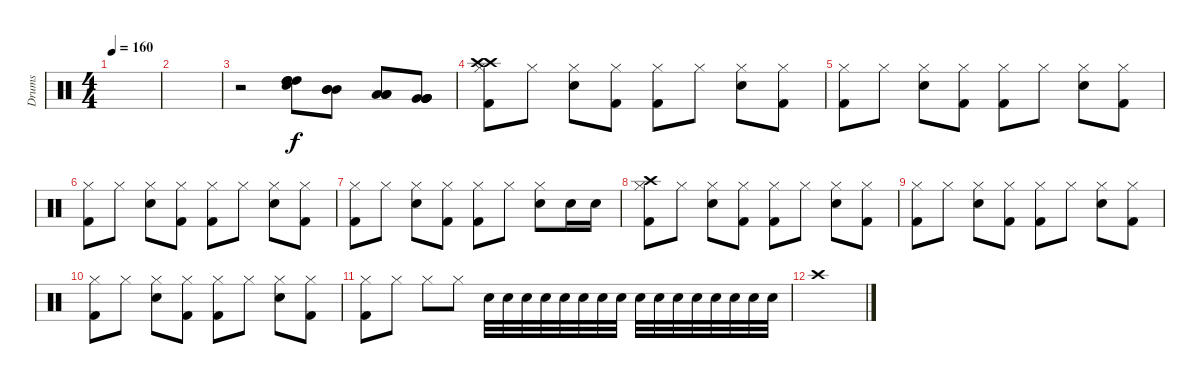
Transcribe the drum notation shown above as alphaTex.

\track ("Drums" "Drums") {instrument percussion}
\staff {score}
\articulation defaults
\ts (4 4)
\tempo 160
\clef neutral
\ks c
|
|
r.2 ("High Tom (hit)" "High Tom (hit)" "High Tom (hit)" "Electric Snare (hit)").8 ("Mid Tom (hit)" "Mid Tom (hit)" "Mid Tom (hit)").8 ("Low Tom (hit)" "Low Tom (hit)" "Low Tom (hit)").8 ("Very Low Tom (hit)" "Very Low Tom (hit)" "Very Low Tom (hit)" "Very Low Tom (hit)").8 |
("Hi-Hat (closed)" "Kick (hit) 2" "Crash high (hit)" "Crash high (hit)").8 "Hi-Hat (closed)".8 ("Hi-Hat (closed)" "Electric Snare (hit)").8 ("Hi-Hat (closed)" "Kick (hit) 2").8 ("Hi-Hat (closed)" "Kick (hit) 2").8 "Hi-Hat (closed)".8 ("Hi-Hat (closed)" "Electric Snare (hit)").8 ("Hi-Hat (closed)" "Kick (hit) 2").8 |
("Hi-Hat (closed)" "Kick (hit) 2").8 "Hi-Hat (closed)".8 ("Hi-Hat (closed)" "Electric Snare (hit)").8 ("Hi-Hat (closed)" "Kick (hit) 2").8 ("Hi-Hat (closed)" "Kick (hit) 2").8 "Hi-Hat (closed)".8 ("Hi-Hat (closed)" "Electric Snare (hit)").8 ("Hi-Hat (closed)" "Kick (hit) 2").8 |
("Hi-Hat (closed)" "Kick (hit) 2").8 "Hi-Hat (closed)".8 ("Hi-Hat (closed)" "Electric Snare (hit)").8 ("Hi-Hat (closed)" "Kick (hit) 2").8 ("Hi-Hat (closed)" "Kick (hit) 2").8 "Hi-Hat (closed)".8 ("Hi-Hat (closed)" "Electric Snare (hit)").8 ("Hi-Hat (closed)" "Kick (hit) 2").8 |
("Hi-Hat (closed)" "Kick (hit) 2").8 "Hi-Hat (closed)".8 ("Hi-Hat (closed)" "Electric Snare (hit)").8 ("Hi-Hat (closed)" "Kick (hit) 2").8 ("Hi-Hat (closed)" "Kick (hit) 2").8 "Hi-Hat (closed)".8 ("Hi-Hat (closed)" "Electric Snare (hit)").8 "Electric Snare (hit)".16 "Electric Snare (hit)".16 |
("Hi-Hat (closed)" "Kick (hit) 2" "Crash high (hit)").8 "Hi-Hat (closed)".8 ("Hi-Hat (closed)" "Electric Snare (hit)").8 ("Hi-Hat (closed)" "Kick (hit) 2").8 ("Hi-Hat (closed)" "Kick (hit) 2").8 "Hi-Hat (closed)".8 ("Hi-Hat (closed)" "Electric Snare (hit)").8 ("Hi-Hat (closed)" "Kick (hit) 2").8 |
("Hi-Hat (closed)" "Kick (hit) 2").8 "Hi-Hat (closed)".8 ("Hi-Hat (closed)" "Electric Snare (hit)").8 ("Hi-Hat (closed)" "Kick (hit) 2").8 ("Hi-Hat (closed)" "Kick (hit) 2").8 "Hi-Hat (closed)".8 ("Hi-Hat (closed)" "Electric Snare (hit)").8 ("Hi-Hat (closed)" "Kick (hit) 2").8 |
("Hi-Hat (closed)" "Kick (hit) 2").8 "Hi-Hat (closed)".8 ("Hi-Hat (closed)" "Electric Snare (hit)").8 ("Hi-Hat (closed)" "Kick (hit) 2").8 ("Hi-Hat (closed)" "Kick (hit) 2").8 "Hi-Hat (closed)".8 ("Hi-Hat (closed)" "Electric Snare (hit)").8 ("Hi-Hat (closed)" "Kick (hit) 2").8 |
("Hi-Hat (closed)" "Kick (hit) 2").8 "Hi-Hat (closed)".8 "Hi-Hat (closed)".8 "Hi-Hat (closed)".8 "Electric Snare (hit)".32 "Electric Snare (hit)".32 "Electric Snare (hit)".32 "Electric Snare (hit)".32 "Electric Snare (hit)".32 "Electric Snare (hit)".32 "Electric Snare (hit)".32 "Electric Snare (hit)".32 "Electric Snare (hit)".32 "Electric Snare (hit)".32 "Electric Snare (hit)".32 "Electric Snare (hit)".32 "Electric Snare (hit)".32 "Electric Snare (hit)".32 "Electric Snare (hit)".32 "Electric Snare (hit)".32 |
"Crash high (hit)".1
